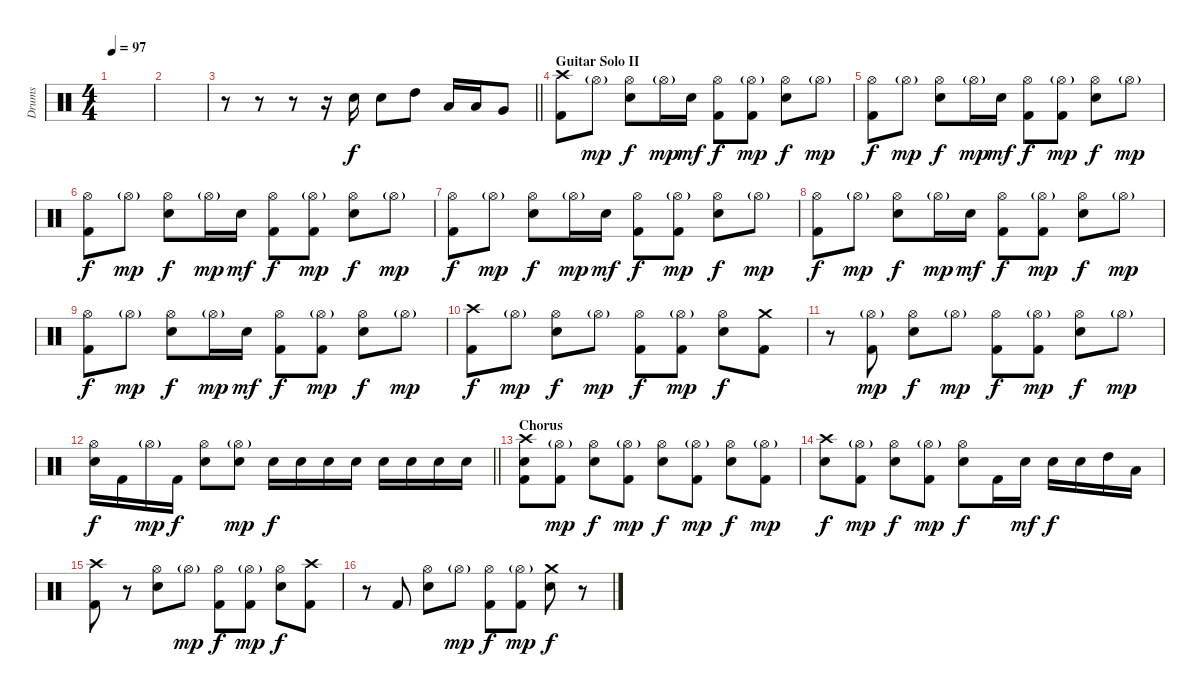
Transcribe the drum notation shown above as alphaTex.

\track ("Drums" "Drums") {instrument percussion}
\staff {score}
\articulation defaults
\ts (4 4)
\tempo 97
\clef neutral
\ks c
|
|
\barLineRight lightlight
r.8 r.8 r.8 r.16 "Electric Snare (hit)".16 "Electric Snare (hit)".8 "High Tom (hit)".8 "Low Tom (hit)".16 "Low Tom (hit)".16 "Very Low Tom (hit)".8 |
\section ("" "Guitar Solo II")
("Crash high (hit)" "Kick (hit) 2").8 "Hi-Hat (open)"{g}.8{dy mp} ("Hi-Hat (open)" "Electric Snare (hit)").8{dy f} "Hi-Hat (open)"{g}.16{dy mp} "Electric Snare (hit)".16{dy mf} ("Hi-Hat (open)" "Kick (hit) 2").8{dy f} ("Hi-Hat (open)"{g} "Kick (hit) 2").8{dy mp} ("Hi-Hat (open)" "Electric Snare (hit)").8{dy f} "Hi-Hat (open)"{g}.8{dy mp} |
("Hi-Hat (open)" "Kick (hit) 2").8{dy f} "Hi-Hat (open)"{g}.8{dy mp} ("Hi-Hat (open)" "Electric Snare (hit)").8{dy f} "Hi-Hat (open)"{g}.16{dy mp} "Electric Snare (hit)".16{dy mf} ("Hi-Hat (open)" "Kick (hit) 2").8{dy f} ("Hi-Hat (open)"{g} "Kick (hit) 2").8{dy mp} ("Hi-Hat (open)" "Electric Snare (hit)").8{dy f} "Hi-Hat (open)"{g}.8{dy mp} |
("Hi-Hat (open)" "Kick (hit) 2").8{dy f} "Hi-Hat (open)"{g}.8{dy mp} ("Hi-Hat (open)" "Electric Snare (hit)").8{dy f} "Hi-Hat (open)"{g}.16{dy mp} "Electric Snare (hit)".16{dy mf} ("Hi-Hat (open)" "Kick (hit) 2").8{dy f} ("Hi-Hat (open)"{g} "Kick (hit) 2").8{dy mp} ("Hi-Hat (open)" "Electric Snare (hit)").8{dy f} "Hi-Hat (open)"{g}.8{dy mp} |
("Hi-Hat (open)" "Kick (hit) 2").8{dy f} "Hi-Hat (open)"{g}.8{dy mp} ("Hi-Hat (open)" "Electric Snare (hit)").8{dy f} "Hi-Hat (open)"{g}.16{dy mp} "Electric Snare (hit)".16{dy mf} ("Hi-Hat (open)" "Kick (hit) 2").8{dy f} ("Hi-Hat (open)"{g} "Kick (hit) 2").8{dy mp} ("Hi-Hat (open)" "Electric Snare (hit)").8{dy f} "Hi-Hat (open)"{g}.8{dy mp} |
("Hi-Hat (open)" "Kick (hit) 2").8{dy f} "Hi-Hat (open)"{g}.8{dy mp} ("Hi-Hat (open)" "Electric Snare (hit)").8{dy f} "Hi-Hat (open)"{g}.16{dy mp} "Electric Snare (hit)".16{dy mf} ("Hi-Hat (open)" "Kick (hit) 2").8{dy f} ("Hi-Hat (open)"{g} "Kick (hit) 2").8{dy mp} ("Hi-Hat (open)" "Electric Snare (hit)").8{dy f} "Hi-Hat (open)"{g}.8{dy mp} |
("Hi-Hat (open)" "Kick (hit) 2").8{dy f} "Hi-Hat (open)"{g}.8{dy mp} ("Hi-Hat (open)" "Electric Snare (hit)").8{dy f} "Hi-Hat (open)"{g}.16{dy mp} "Electric Snare (hit)".16{dy mf} ("Hi-Hat (open)" "Kick (hit) 2").8{dy f} ("Hi-Hat (open)"{g} "Kick (hit) 2").8{dy mp} ("Hi-Hat (open)" "Electric Snare (hit)").8{dy f} "Hi-Hat (open)"{g}.8{dy mp} |
("Crash high (hit)" "Kick (hit) 2").8{dy f} "Hi-Hat (open)"{g}.8{dy mp} ("Hi-Hat (open)" "Electric Snare (hit)").8{dy f} "Hi-Hat (open)"{g}.8{dy mp} ("Hi-Hat (open)" "Kick (hit) 2").8{dy f} ("Hi-Hat (open)"{g} "Kick (hit) 2").8{dy mp} ("Hi-Hat (open)" "Electric Snare (hit)").8{dy f} ("Crash medium (hit)" "Kick (hit) 2").8 |
r.8 ("Hi-Hat (open)"{g} "Kick (hit) 2").8{dy mp} ("Hi-Hat (open)" "Electric Snare (hit)").8{dy f} "Hi-Hat (open)"{g}.8{dy mp} ("Hi-Hat (open)" "Kick (hit) 2").8{dy f} ("Hi-Hat (open)"{g} "Kick (hit) 2").8{dy mp} ("Hi-Hat (open)" "Electric Snare (hit)").8{dy f} "Hi-Hat (open)"{g}.8{dy mp} |
\barLineRight lightlight
("Hi-Hat (open)" "Electric Snare (hit)").16{dy f} "Kick (hit) 2".16 "Hi-Hat (open)"{g}.16{dy mp} "Kick (hit) 2".16{dy f} ("Hi-Hat (open)" "Electric Snare (hit)").8 ("Hi-Hat (open)"{g} "Electric Snare (hit)").8{dy mp} "Electric Snare (hit)".16{dy f} "Electric Snare (hit)".16 "Electric Snare (hit)".16 "Electric Snare (hit)".16 "Electric Snare (hit)".16 "Electric Snare (hit)".16 "Electric Snare (hit)".16 "Electric Snare (hit)".16 |
\section ("" "Chorus")
("Crash high (hit)" "Electric Snare (hit)" "Kick (hit) 2").8 ("Hi-Hat (open)"{g} "Kick (hit) 2").8{dy mp} ("Hi-Hat (open)" "Electric Snare (hit)").8{dy f} ("Hi-Hat (open)"{g} "Kick (hit) 2").8{dy mp} ("Hi-Hat (open)" "Electric Snare (hit)").8{dy f} ("Hi-Hat (open)"{g} "Kick (hit) 2").8{dy mp} ("Hi-Hat (open)" "Electric Snare (hit)").8{dy f} ("Hi-Hat (open)"{g} "Kick (hit) 2").8{dy mp} |
("Crash high (hit)" "Electric Snare (hit)").8{dy f} ("Hi-Hat (open)"{g} "Kick (hit) 2").8{dy mp} ("Hi-Hat (open)" "Electric Snare (hit)").8{dy f} ("Hi-Hat (open)"{g} "Kick (hit) 2").8{dy mp} ("Hi-Hat (open)" "Electric Snare (hit)").8{dy f} "Kick (hit) 2".16 "Electric Snare (hit)".16{dy mf} "Electric Snare (hit)".16{dy f} "Electric Snare (hit)".16 "High Tom (hit)".16 "Low Tom (hit)".16 |
("Crash high (hit)" "Kick (hit) 2").8 r.8 ("Hi-Hat (open)" "Electric Snare (hit)").8 "Hi-Hat (open)"{g}.8{dy mp} ("Hi-Hat (open)" "Kick (hit) 2").8{dy f} ("Hi-Hat (open)"{g} "Kick (hit) 2").8{dy mp} ("Hi-Hat (open)" "Electric Snare (hit)").8{dy f} ("Crash high (hit)" "Kick (hit) 2").8 |
r.8 "Kick (hit) 2".8 ("Hi-Hat (open)" "Electric Snare (hit)").8 "Hi-Hat (open)"{g}.8{dy mp} ("Hi-Hat (open)" "Kick (hit) 2").8{dy f} ("Hi-Hat (open)"{g} "Kick (hit) 2").8{dy mp} ("Crash medium (hit)" "Electric Snare (hit)").8{dy f} r.8
